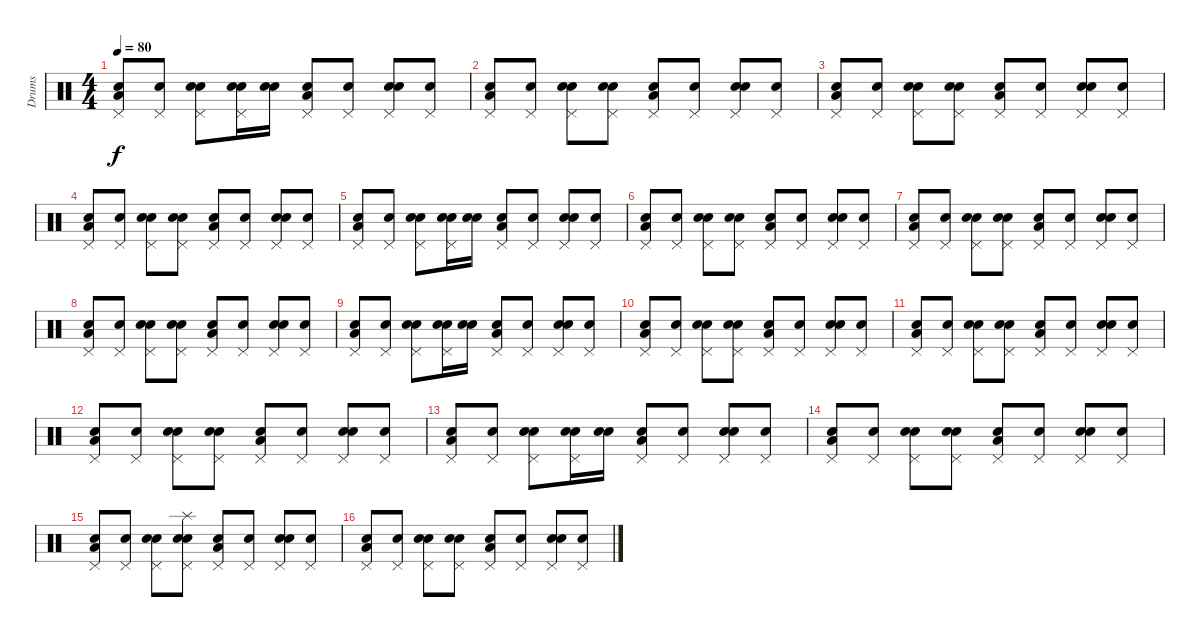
\track ("Drums" "Drums") {instrument percussion}
\staff {score}
\articulation defaults
\ts (4 4)
\tempo 80
\clef neutral
\ks c
("Snare (hit)" "Low Floor Tom (hit)" "Pedal Hi-Hat (hit)").8{dy f} ("Snare (hit)" "Pedal Hi-Hat (hit)").8 ("Snare (hit)" "Electric Snare (hit)" "Pedal Hi-Hat (hit)").8 ("Snare (hit)" "Electric Snare (hit)" "Pedal Hi-Hat (hit)").16 ("Snare (hit)" "Electric Snare (hit)").16 ("Snare (hit)" "Low Floor Tom (hit)" "Pedal Hi-Hat (hit)").8 ("Snare (hit)" "Pedal Hi-Hat (hit)").8 ("Snare (hit)" "Electric Snare (hit)" "Pedal Hi-Hat (hit)").8 ("Snare (hit)" "Pedal Hi-Hat (hit)").8 |
("Snare (hit)" "Low Floor Tom (hit)" "Pedal Hi-Hat (hit)").8 ("Snare (hit)" "Pedal Hi-Hat (hit)").8 ("Snare (hit)" "Electric Snare (hit)" "Pedal Hi-Hat (hit)").8 ("Snare (hit)" "Electric Snare (hit)" "Pedal Hi-Hat (hit)").8 ("Snare (hit)" "Low Floor Tom (hit)" "Pedal Hi-Hat (hit)").8 ("Snare (hit)" "Pedal Hi-Hat (hit)").8 ("Snare (hit)" "Electric Snare (hit)" "Pedal Hi-Hat (hit)").8 ("Snare (hit)" "Pedal Hi-Hat (hit)").8 |
("Snare (hit)" "Low Floor Tom (hit)" "Pedal Hi-Hat (hit)").8 ("Snare (hit)" "Pedal Hi-Hat (hit)").8 ("Snare (hit)" "Electric Snare (hit)" "Pedal Hi-Hat (hit)").8 ("Snare (hit)" "Electric Snare (hit)" "Pedal Hi-Hat (hit)").8 ("Snare (hit)" "Low Floor Tom (hit)" "Pedal Hi-Hat (hit)").8 ("Snare (hit)" "Pedal Hi-Hat (hit)").8 ("Snare (hit)" "Electric Snare (hit)" "Pedal Hi-Hat (hit)").8 ("Snare (hit)" "Pedal Hi-Hat (hit)").8 |
("Snare (hit)" "Low Floor Tom (hit)" "Pedal Hi-Hat (hit)").8 ("Snare (hit)" "Pedal Hi-Hat (hit)").8 ("Snare (hit)" "Electric Snare (hit)" "Pedal Hi-Hat (hit)").8 ("Snare (hit)" "Electric Snare (hit)" "Pedal Hi-Hat (hit)").8 ("Snare (hit)" "Low Floor Tom (hit)" "Pedal Hi-Hat (hit)").8 ("Snare (hit)" "Pedal Hi-Hat (hit)").8 ("Snare (hit)" "Electric Snare (hit)" "Pedal Hi-Hat (hit)").8 ("Snare (hit)" "Pedal Hi-Hat (hit)").8 |
("Snare (hit)" "Low Floor Tom (hit)" "Pedal Hi-Hat (hit)").8 ("Snare (hit)" "Pedal Hi-Hat (hit)").8 ("Snare (hit)" "Electric Snare (hit)" "Pedal Hi-Hat (hit)").8 ("Snare (hit)" "Electric Snare (hit)" "Pedal Hi-Hat (hit)").16 ("Snare (hit)" "Electric Snare (hit)").16 ("Snare (hit)" "Low Floor Tom (hit)" "Pedal Hi-Hat (hit)").8 ("Snare (hit)" "Pedal Hi-Hat (hit)").8 ("Snare (hit)" "Electric Snare (hit)" "Pedal Hi-Hat (hit)").8 ("Snare (hit)" "Pedal Hi-Hat (hit)").8 |
("Snare (hit)" "Low Floor Tom (hit)" "Pedal Hi-Hat (hit)").8 ("Snare (hit)" "Pedal Hi-Hat (hit)").8 ("Snare (hit)" "Electric Snare (hit)" "Pedal Hi-Hat (hit)").8 ("Snare (hit)" "Electric Snare (hit)" "Pedal Hi-Hat (hit)").8 ("Snare (hit)" "Low Floor Tom (hit)" "Pedal Hi-Hat (hit)").8 ("Snare (hit)" "Pedal Hi-Hat (hit)").8 ("Snare (hit)" "Electric Snare (hit)" "Pedal Hi-Hat (hit)").8 ("Snare (hit)" "Pedal Hi-Hat (hit)").8 |
("Snare (hit)" "Low Floor Tom (hit)" "Pedal Hi-Hat (hit)").8 ("Snare (hit)" "Pedal Hi-Hat (hit)").8 ("Snare (hit)" "Electric Snare (hit)" "Pedal Hi-Hat (hit)").8 ("Snare (hit)" "Electric Snare (hit)" "Pedal Hi-Hat (hit)").8 ("Snare (hit)" "Low Floor Tom (hit)" "Pedal Hi-Hat (hit)").8 ("Snare (hit)" "Pedal Hi-Hat (hit)").8 ("Snare (hit)" "Electric Snare (hit)" "Pedal Hi-Hat (hit)").8 ("Snare (hit)" "Pedal Hi-Hat (hit)").8 |
("Snare (hit)" "Low Floor Tom (hit)" "Pedal Hi-Hat (hit)").8 ("Snare (hit)" "Pedal Hi-Hat (hit)").8 ("Snare (hit)" "Electric Snare (hit)" "Pedal Hi-Hat (hit)").8 ("Snare (hit)" "Electric Snare (hit)" "Pedal Hi-Hat (hit)").8 ("Snare (hit)" "Low Floor Tom (hit)" "Pedal Hi-Hat (hit)").8 ("Snare (hit)" "Pedal Hi-Hat (hit)").8 ("Snare (hit)" "Electric Snare (hit)" "Pedal Hi-Hat (hit)").8 ("Snare (hit)" "Pedal Hi-Hat (hit)").8 |
("Snare (hit)" "Low Floor Tom (hit)" "Pedal Hi-Hat (hit)").8 ("Snare (hit)" "Pedal Hi-Hat (hit)").8 ("Snare (hit)" "Electric Snare (hit)" "Pedal Hi-Hat (hit)").8 ("Snare (hit)" "Electric Snare (hit)" "Pedal Hi-Hat (hit)").16 ("Snare (hit)" "Electric Snare (hit)").16 ("Snare (hit)" "Low Floor Tom (hit)" "Pedal Hi-Hat (hit)").8 ("Snare (hit)" "Pedal Hi-Hat (hit)").8 ("Snare (hit)" "Electric Snare (hit)" "Pedal Hi-Hat (hit)").8 ("Snare (hit)" "Pedal Hi-Hat (hit)").8 |
("Snare (hit)" "Low Floor Tom (hit)" "Pedal Hi-Hat (hit)").8 ("Snare (hit)" "Pedal Hi-Hat (hit)").8 ("Snare (hit)" "Electric Snare (hit)" "Pedal Hi-Hat (hit)").8 ("Snare (hit)" "Electric Snare (hit)" "Pedal Hi-Hat (hit)").8 ("Snare (hit)" "Low Floor Tom (hit)" "Pedal Hi-Hat (hit)").8 ("Snare (hit)" "Pedal Hi-Hat (hit)").8 ("Snare (hit)" "Electric Snare (hit)" "Pedal Hi-Hat (hit)").8 ("Snare (hit)" "Pedal Hi-Hat (hit)").8 |
("Snare (hit)" "Low Floor Tom (hit)" "Pedal Hi-Hat (hit)").8 ("Snare (hit)" "Pedal Hi-Hat (hit)").8 ("Snare (hit)" "Electric Snare (hit)" "Pedal Hi-Hat (hit)").8 ("Snare (hit)" "Electric Snare (hit)" "Pedal Hi-Hat (hit)").8 ("Snare (hit)" "Low Floor Tom (hit)" "Pedal Hi-Hat (hit)").8 ("Snare (hit)" "Pedal Hi-Hat (hit)").8 ("Snare (hit)" "Electric Snare (hit)" "Pedal Hi-Hat (hit)").8 ("Snare (hit)" "Pedal Hi-Hat (hit)").8 |
("Snare (hit)" "Low Floor Tom (hit)" "Pedal Hi-Hat (hit)").8 ("Snare (hit)" "Pedal Hi-Hat (hit)").8 ("Snare (hit)" "Electric Snare (hit)" "Pedal Hi-Hat (hit)").8 ("Snare (hit)" "Electric Snare (hit)" "Pedal Hi-Hat (hit)").8 ("Snare (hit)" "Low Floor Tom (hit)" "Pedal Hi-Hat (hit)").8 ("Snare (hit)" "Pedal Hi-Hat (hit)").8 ("Snare (hit)" "Electric Snare (hit)" "Pedal Hi-Hat (hit)").8 ("Snare (hit)" "Pedal Hi-Hat (hit)").8 |
("Snare (hit)" "Low Floor Tom (hit)" "Pedal Hi-Hat (hit)").8 ("Snare (hit)" "Pedal Hi-Hat (hit)").8 ("Snare (hit)" "Electric Snare (hit)" "Pedal Hi-Hat (hit)").8 ("Snare (hit)" "Electric Snare (hit)" "Pedal Hi-Hat (hit)").16 ("Snare (hit)" "Electric Snare (hit)").16 ("Snare (hit)" "Low Floor Tom (hit)" "Pedal Hi-Hat (hit)").8 ("Snare (hit)" "Pedal Hi-Hat (hit)").8 ("Snare (hit)" "Electric Snare (hit)" "Pedal Hi-Hat (hit)").8 ("Snare (hit)" "Pedal Hi-Hat (hit)").8 |
("Snare (hit)" "Low Floor Tom (hit)" "Pedal Hi-Hat (hit)").8 ("Snare (hit)" "Pedal Hi-Hat (hit)").8 ("Snare (hit)" "Electric Snare (hit)" "Pedal Hi-Hat (hit)").8 ("Snare (hit)" "Electric Snare (hit)" "Pedal Hi-Hat (hit)").8 ("Snare (hit)" "Low Floor Tom (hit)" "Pedal Hi-Hat (hit)").8 ("Snare (hit)" "Pedal Hi-Hat (hit)").8 ("Snare (hit)" "Electric Snare (hit)" "Pedal Hi-Hat (hit)").8 ("Snare (hit)" "Pedal Hi-Hat (hit)").8 |
("Snare (hit)" "Low Floor Tom (hit)" "Pedal Hi-Hat (hit)").8 ("Snare (hit)" "Pedal Hi-Hat (hit)").8 ("Snare (hit)" "Electric Snare (hit)" "Pedal Hi-Hat (hit)").8 ("Snare (hit)" "Electric Snare (hit)" "Pedal Hi-Hat (hit)" "Splash (hit)").8 ("Snare (hit)" "Low Floor Tom (hit)" "Pedal Hi-Hat (hit)").8 ("Snare (hit)" "Pedal Hi-Hat (hit)").8 ("Snare (hit)" "Electric Snare (hit)" "Pedal Hi-Hat (hit)").8 ("Snare (hit)" "Pedal Hi-Hat (hit)").8 |
("Snare (hit)" "Low Floor Tom (hit)" "Pedal Hi-Hat (hit)").8 ("Snare (hit)" "Pedal Hi-Hat (hit)").8 ("Snare (hit)" "Electric Snare (hit)" "Pedal Hi-Hat (hit)").8 ("Snare (hit)" "Electric Snare (hit)" "Pedal Hi-Hat (hit)").8 ("Snare (hit)" "Low Floor Tom (hit)" "Pedal Hi-Hat (hit)").8 ("Snare (hit)" "Pedal Hi-Hat (hit)").8 ("Snare (hit)" "Electric Snare (hit)" "Pedal Hi-Hat (hit)").8 ("Snare (hit)" "Pedal Hi-Hat (hit)").8
